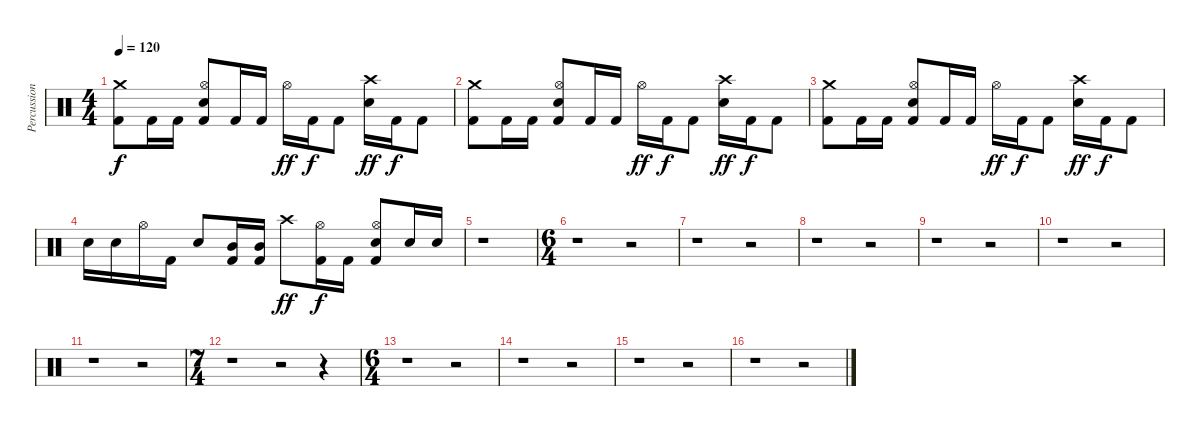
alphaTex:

\track ("Percussioni" "Percussion") {instrument percussion}
\staff {score}
\articulation defaults
\ts (4 4)
\tempo 120
\clef neutral
\ks c
("Crash medium (hit)" "Kick (hit) 2").8{dy f} "Kick (hit) 2".16 "Kick (hit) 2".16 ("Hi-Hat (open)" "Electric Snare (hit)" "Kick (hit) 2").8 "Kick (hit) 2".16 "Kick (hit) 2".16 "Hi-Hat (open)".16{dy ff} "Kick (hit) 2".16{dy f} "Kick (hit) 2".8 ("Crash high (hit)" "Electric Snare (hit)").16{dy ff} "Kick (hit) 2".16{dy f} "Kick (hit) 2".8 |
("Crash medium (hit)" "Kick (hit) 2").8 "Kick (hit) 2".16 "Kick (hit) 2".16 ("Hi-Hat (open)" "Electric Snare (hit)" "Kick (hit) 2").8 "Kick (hit) 2".16 "Kick (hit) 2".16 "Hi-Hat (open)".16{dy ff} "Kick (hit) 2".16{dy f} "Kick (hit) 2".8 ("Crash high (hit)" "Electric Snare (hit)").16{dy ff} "Kick (hit) 2".16{dy f} "Kick (hit) 2".8 |
("Crash medium (hit)" "Kick (hit) 2").8 "Kick (hit) 2".16 "Kick (hit) 2".16 ("Hi-Hat (open)" "Electric Snare (hit)" "Kick (hit) 2").8 "Kick (hit) 2".16 "Kick (hit) 2".16 "Hi-Hat (open)".16{dy ff} "Kick (hit) 2".16{dy f} "Kick (hit) 2".8 ("Crash high (hit)" "Electric Snare (hit)").16{dy ff} "Kick (hit) 2".16{dy f} "Kick (hit) 2".8 |
"Electric Snare (hit)".16 "Electric Snare (hit)".16 "Hi-Hat (open)".16 "Kick (hit) 2".16 "Electric Snare (hit)".8 ("Mid Tom (hit)" "Kick (hit) 2").16 ("Mid Tom (hit)" "Kick (hit) 2").16 "Crash high (hit)".8{dy ff} ("Hi-Hat (open)" "Kick (hit) 2").16{dy f} "Kick (hit) 2".16 ("Hi-Hat (open)" "Electric Snare (hit)" "Kick (hit) 2").8 "Electric Snare (hit)".16 "Electric Snare (hit)".16 |
r.1 |
\ts (6 4)
r.1 r.2 |
r.1 r.2 |
r.1 r.2 |
r.1 r.2 |
r.1 r.2 |
r.1 r.2 |
\ts (7 4)
r.1 r.2 r.4 |
\ts (6 4)
r.1 r.2 |
r.1 r.2 |
r.1 r.2 |
r.1 r.2
